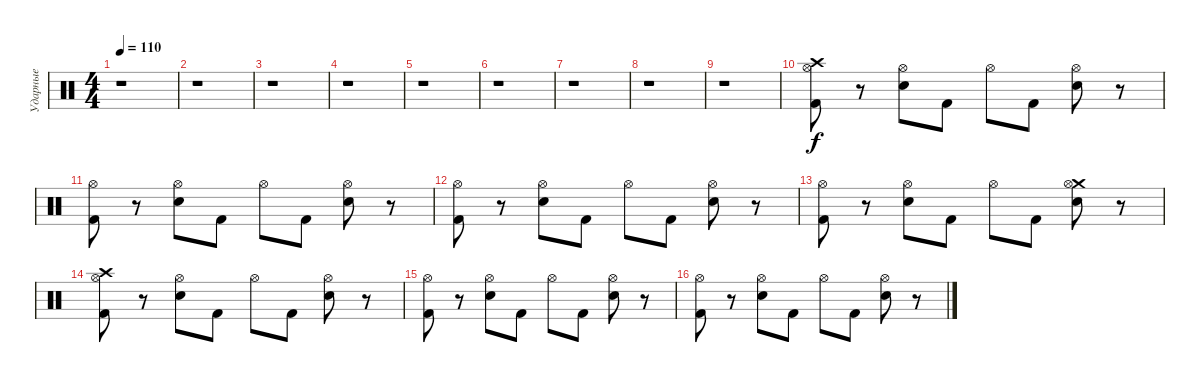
\track ("Ударные" "Ударные") {instrument percussion}
\staff {score}
\articulation defaults
\ts (4 4)
\tempo 110
\clef neutral
\ks c
r.1{dy f} |
r.1 |
r.1 |
r.1 |
r.1 |
r.1 |
r.1 |
r.1 |
r.1 |
("Crash high (hit)" "Kick (hit) 2" "Hi-Hat (open)").8 r.8 ("Electric Snare (hit)" "Hi-Hat (open)").8 "Kick (hit) 2".8 "Hi-Hat (open)".8 "Kick (hit) 2".8 ("Electric Snare (hit)" "Hi-Hat (open)").8 r.8 |
("Kick (hit) 2" "Hi-Hat (open)").8 r.8 ("Electric Snare (hit)" "Hi-Hat (open)").8 "Kick (hit) 2".8 "Hi-Hat (open)".8 "Kick (hit) 2".8 ("Electric Snare (hit)" "Hi-Hat (open)").8 r.8 |
("Kick (hit) 2" "Hi-Hat (open)").8 r.8 ("Electric Snare (hit)" "Hi-Hat (open)").8 "Kick (hit) 2".8 "Hi-Hat (open)".8 "Kick (hit) 2".8 ("Electric Snare (hit)" "Hi-Hat (open)").8 r.8 |
("Kick (hit) 2" "Hi-Hat (open)").8 r.8 ("Electric Snare (hit)" "Hi-Hat (open)").8 "Kick (hit) 2".8 "Hi-Hat (open)".8 "Kick (hit) 2".8 ("Electric Snare (hit)" "Crash medium (hit)" "Hi-Hat (open)").8 r.8 |
("Crash high (hit)" "Kick (hit) 2" "Hi-Hat (open)").8 r.8 ("Electric Snare (hit)" "Hi-Hat (open)").8 "Kick (hit) 2".8 "Hi-Hat (open)".8 "Kick (hit) 2".8 ("Electric Snare (hit)" "Hi-Hat (open)").8 r.8 |
("Kick (hit) 2" "Hi-Hat (open)").8 r.8 ("Electric Snare (hit)" "Hi-Hat (open)").8 "Kick (hit) 2".8 "Hi-Hat (open)".8 "Kick (hit) 2".8 ("Electric Snare (hit)" "Hi-Hat (open)").8 r.8 |
("Kick (hit) 2" "Hi-Hat (open)").8 r.8 ("Electric Snare (hit)" "Hi-Hat (open)").8 "Kick (hit) 2".8 "Hi-Hat (open)".8 "Kick (hit) 2".8 ("Electric Snare (hit)" "Hi-Hat (open)").8 r.8
